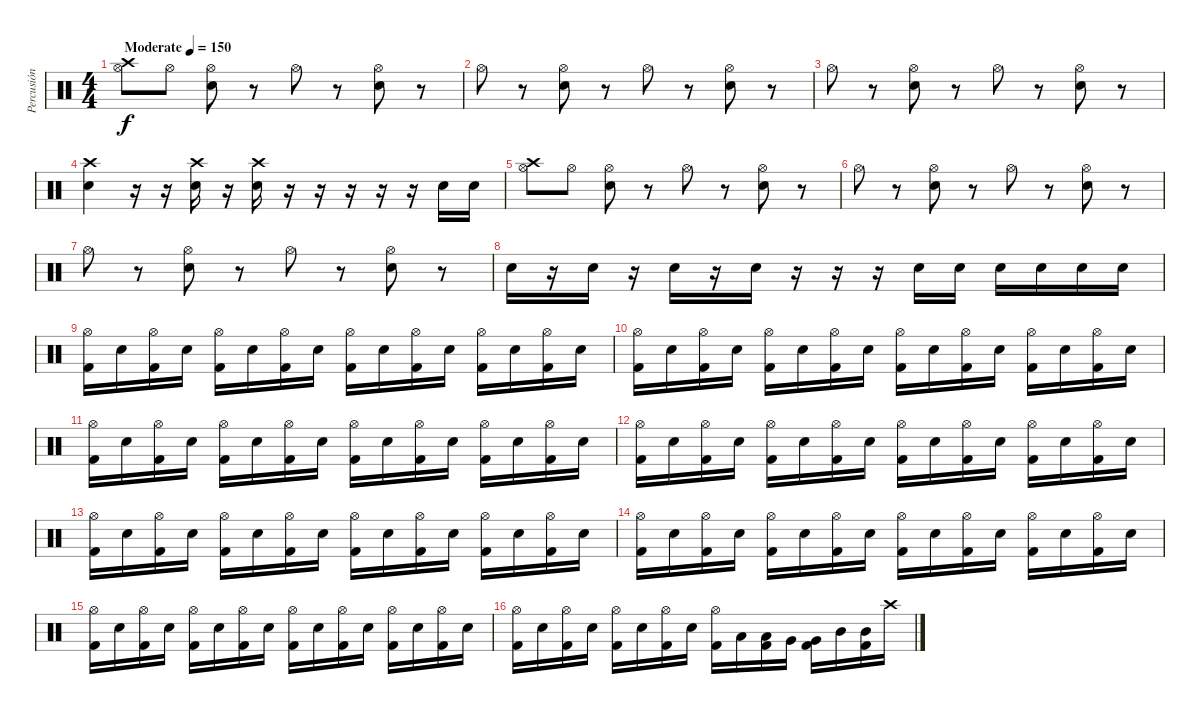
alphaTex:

\track ("Percusión" "Percusión") {instrument percussion}
\staff {score}
\articulation defaults
\ts (4 4)
\tempo (150 "Moderate")
\clef neutral
\ks c
("Crash high (hit)" "Hi-Hat (open)").8{dy f} "Hi-Hat (open)".8 ("Hi-Hat (open)" "Snare (hit) 2").8 r.8 "Hi-Hat (open)".8 r.8 ("Hi-Hat (open)" "Snare (hit) 2").8 r.8 |
"Hi-Hat (open)".8 r.8 ("Hi-Hat (open)" "Snare (hit) 2").8 r.8 "Hi-Hat (open)".8 r.8 ("Hi-Hat (open)" "Snare (hit) 2").8 r.8 |
"Hi-Hat (open)".8 r.8 ("Hi-Hat (open)" "Snare (hit) 2").8 r.8 "Hi-Hat (open)".8 r.8 ("Hi-Hat (open)" "Snare (hit) 2").8 r.8 |
("Crash high (hit)" "Snare (hit) 2").4 r.16 r.16 ("Crash high (hit)" "Snare (hit) 2").16 r.16 ("Crash high (hit)" "Snare (hit) 2").16 r.16 r.16 r.16 r.16 r.16 "Snare (hit) 2".16 "Snare (hit) 2".16 |
("Crash high (hit)" "Hi-Hat (open)").8 "Hi-Hat (open)".8 ("Hi-Hat (open)" "Snare (hit) 2").8 r.8 "Hi-Hat (open)".8 r.8 ("Hi-Hat (open)" "Snare (hit) 2").8 r.8 |
"Hi-Hat (open)".8 r.8 ("Hi-Hat (open)" "Snare (hit) 2").8 r.8 "Hi-Hat (open)".8 r.8 ("Hi-Hat (open)" "Snare (hit) 2").8 r.8 |
"Hi-Hat (open)".8 r.8 ("Hi-Hat (open)" "Snare (hit) 2").8 r.8 "Hi-Hat (open)".8 r.8 ("Hi-Hat (open)" "Snare (hit) 2").8 r.8 |
"Snare (hit) 2".16 r.16 "Snare (hit) 2".16 r.16 "Snare (hit) 2".16 r.16 "Snare (hit) 2".16 r.16 r.16 r.16 "Snare (hit) 2".16 "Snare (hit) 2".16 "Snare (hit) 2".16 "Snare (hit) 2".16 "Snare (hit) 2".16 "Snare (hit) 2".16 |
("Hi-Hat (open)" "Kick (hit) 2").16 "Snare (hit) 2".16 ("Hi-Hat (open)" "Kick (hit) 2").16 "Snare (hit) 2".16 ("Hi-Hat (open)" "Kick (hit) 2").16 "Snare (hit) 2".16 ("Hi-Hat (open)" "Kick (hit) 2").16 "Snare (hit) 2".16 ("Hi-Hat (open)" "Kick (hit) 2").16 "Snare (hit) 2".16 ("Hi-Hat (open)" "Kick (hit) 2").16 "Snare (hit) 2".16 ("Hi-Hat (open)" "Kick (hit) 2").16 "Snare (hit) 2".16 ("Hi-Hat (open)" "Kick (hit) 2").16 "Snare (hit) 2".16 |
("Hi-Hat (open)" "Kick (hit) 2").16 "Snare (hit) 2".16 ("Hi-Hat (open)" "Kick (hit) 2").16 "Snare (hit) 2".16 ("Hi-Hat (open)" "Kick (hit) 2").16 "Snare (hit) 2".16 ("Hi-Hat (open)" "Kick (hit) 2").16 "Snare (hit) 2".16 ("Hi-Hat (open)" "Kick (hit) 2").16 "Snare (hit) 2".16 ("Hi-Hat (open)" "Kick (hit) 2").16 "Snare (hit) 2".16 ("Hi-Hat (open)" "Kick (hit) 2").16 "Snare (hit) 2".16 ("Hi-Hat (open)" "Kick (hit) 2").16 "Snare (hit) 2".16 |
("Hi-Hat (open)" "Kick (hit) 2").16 "Snare (hit) 2".16 ("Hi-Hat (open)" "Kick (hit) 2").16 "Snare (hit) 2".16 ("Hi-Hat (open)" "Kick (hit) 2").16 "Snare (hit) 2".16 ("Hi-Hat (open)" "Kick (hit) 2").16 "Snare (hit) 2".16 ("Hi-Hat (open)" "Kick (hit) 2").16 "Snare (hit) 2".16 ("Hi-Hat (open)" "Kick (hit) 2").16 "Snare (hit) 2".16 ("Hi-Hat (open)" "Kick (hit) 2").16 "Snare (hit) 2".16 ("Hi-Hat (open)" "Kick (hit) 2").16 "Snare (hit) 2".16 |
("Hi-Hat (open)" "Kick (hit) 2").16 "Snare (hit) 2".16 ("Hi-Hat (open)" "Kick (hit) 2").16 "Snare (hit) 2".16 ("Hi-Hat (open)" "Kick (hit) 2").16 "Snare (hit) 2".16 ("Hi-Hat (open)" "Kick (hit) 2").16 "Snare (hit) 2".16 ("Hi-Hat (open)" "Kick (hit) 2").16 "Snare (hit) 2".16 ("Hi-Hat (open)" "Kick (hit) 2").16 "Snare (hit) 2".16 ("Hi-Hat (open)" "Kick (hit) 2").16 "Snare (hit) 2".16 ("Hi-Hat (open)" "Kick (hit) 2").16 "Snare (hit) 2".16 |
("Hi-Hat (open)" "Kick (hit) 2").16 "Snare (hit) 2".16 ("Hi-Hat (open)" "Kick (hit) 2").16 "Snare (hit) 2".16 ("Hi-Hat (open)" "Kick (hit) 2").16 "Snare (hit) 2".16 ("Hi-Hat (open)" "Kick (hit) 2").16 "Snare (hit) 2".16 ("Hi-Hat (open)" "Kick (hit) 2").16 "Snare (hit) 2".16 ("Hi-Hat (open)" "Kick (hit) 2").16 "Snare (hit) 2".16 ("Hi-Hat (open)" "Kick (hit) 2").16 "Snare (hit) 2".16 ("Hi-Hat (open)" "Kick (hit) 2").16 "Snare (hit) 2".16 |
("Hi-Hat (open)" "Kick (hit) 2").16 "Snare (hit) 2".16 ("Hi-Hat (open)" "Kick (hit) 2").16 "Snare (hit) 2".16 ("Hi-Hat (open)" "Kick (hit) 2").16 "Snare (hit) 2".16 ("Hi-Hat (open)" "Kick (hit) 2").16 "Snare (hit) 2".16 ("Hi-Hat (open)" "Kick (hit) 2").16 "Snare (hit) 2".16 ("Hi-Hat (open)" "Kick (hit) 2").16 "Snare (hit) 2".16 ("Hi-Hat (open)" "Kick (hit) 2").16 "Snare (hit) 2".16 ("Hi-Hat (open)" "Kick (hit) 2").16 "Snare (hit) 2".16 |
("Hi-Hat (open)" "Kick (hit) 2").16 "Snare (hit) 2".16 ("Hi-Hat (open)" "Kick (hit) 2").16 "Snare (hit) 2".16 ("Hi-Hat (open)" "Kick (hit) 2").16 "Snare (hit) 2".16 ("Hi-Hat (open)" "Kick (hit) 2").16 "Snare (hit) 2".16 ("Hi-Hat (open)" "Kick (hit) 2").16 "Snare (hit) 2".16 ("Hi-Hat (open)" "Kick (hit) 2").16 "Snare (hit) 2".16 ("Hi-Hat (open)" "Kick (hit) 2").16 "Snare (hit) 2".16 ("Hi-Hat (open)" "Kick (hit) 2").16 "Snare (hit) 2".16 |
("Hi-Hat (open)" "Kick (hit) 2").16 "Snare (hit) 2".16 ("Hi-Hat (open)" "Kick (hit) 2").16 "Snare (hit) 2".16 ("Hi-Hat (open)" "Kick (hit) 2").16 "Snare (hit) 2".16 ("Hi-Hat (open)" "Kick (hit) 2").16 "Snare (hit) 2".16 ("Hi-Hat (open)" "Kick (hit) 2").16 "Low Floor Tom (hit)".16 ("Low Floor Tom (hit)" "Kick (hit) 2").16 "Very Low Tom (hit)".16 ("Very Low Tom (hit)" "Kick (hit) 2").16 "Mid Tom (hit)".16 ("Mid Tom (hit)" "Kick (hit) 2").16 "Crash high (hit)".16
